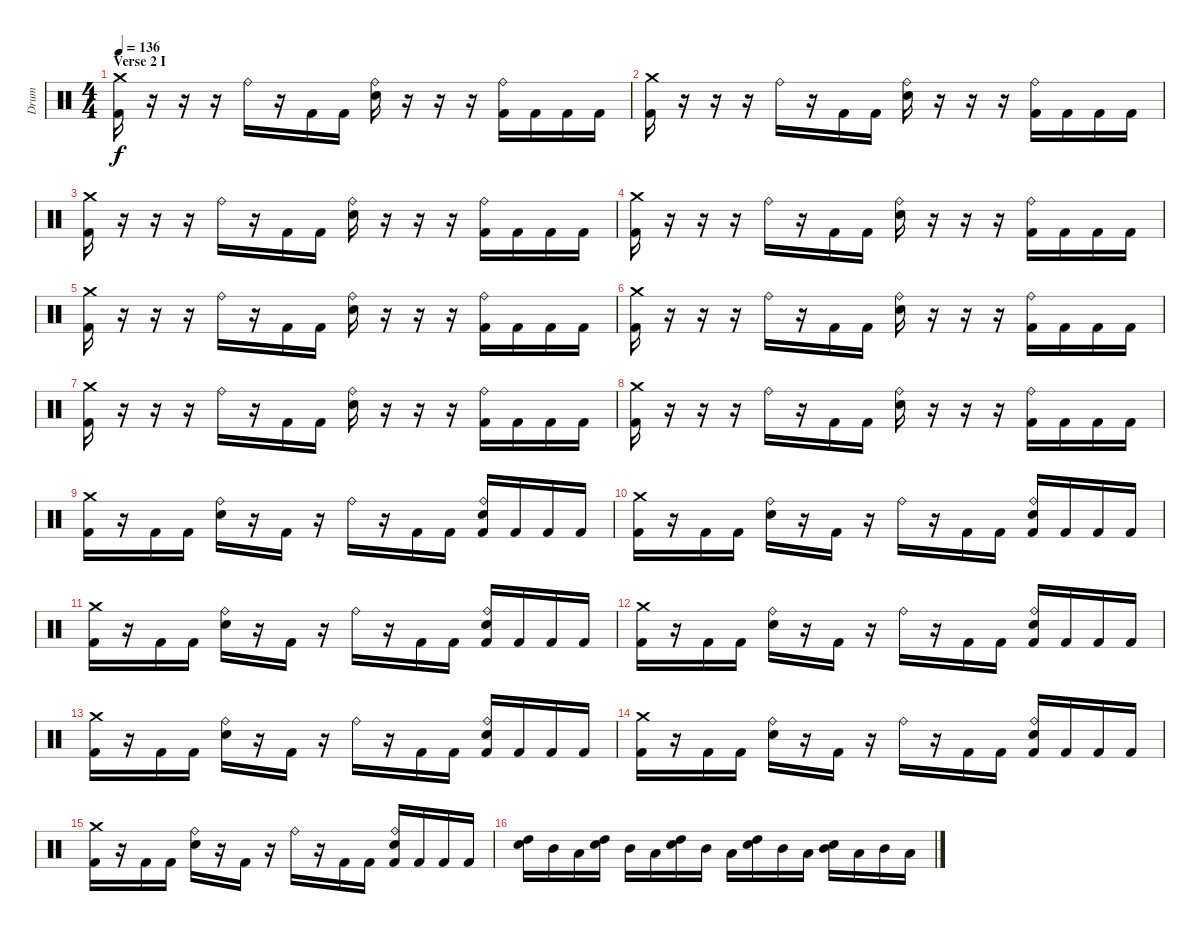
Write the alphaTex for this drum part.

\track ("Drum" "Drum") {instrument percussion}
\staff {score}
\articulation defaults
\ts (4 4)
\section ("" "Verse 2 I")
\tempo 136
\clef neutral
\ks c
("Crash medium (hit)" "Kick (hit) 2").16{dy f} r.16 r.16 r.16 "Ride (bell)".16 r.16 "Kick (hit) 2".16 "Kick (hit) 2".16 ("Ride (bell)" "Snare (hit) 2").16 r.16 r.16 r.16 ("Ride (bell)" "Kick (hit) 2").16 "Kick (hit) 2".16 "Kick (hit) 2".16 "Kick (hit) 2".16 |
("Crash medium (hit)" "Kick (hit) 2").16 r.16 r.16 r.16 "Ride (bell)".16 r.16 "Kick (hit) 2".16 "Kick (hit) 2".16 ("Ride (bell)" "Snare (hit) 2").16 r.16 r.16 r.16 ("Ride (bell)" "Kick (hit) 2").16 "Kick (hit) 2".16 "Kick (hit) 2".16 "Kick (hit) 2".16 |
("Crash medium (hit)" "Kick (hit) 2").16 r.16 r.16 r.16 "Ride (bell)".16 r.16 "Kick (hit) 2".16 "Kick (hit) 2".16 ("Ride (bell)" "Snare (hit) 2").16 r.16 r.16 r.16 ("Ride (bell)" "Kick (hit) 2").16 "Kick (hit) 2".16 "Kick (hit) 2".16 "Kick (hit) 2".16 |
("Crash medium (hit)" "Kick (hit) 2").16 r.16 r.16 r.16 "Ride (bell)".16 r.16 "Kick (hit) 2".16 "Kick (hit) 2".16 ("Ride (bell)" "Snare (hit) 2").16 r.16 r.16 r.16 ("Ride (bell)" "Kick (hit) 2").16 "Kick (hit) 2".16 "Kick (hit) 2".16 "Kick (hit) 2".16 |
("Crash medium (hit)" "Kick (hit) 2").16 r.16 r.16 r.16 "Ride (bell)".16 r.16 "Kick (hit) 2".16 "Kick (hit) 2".16 ("Ride (bell)" "Snare (hit) 2").16 r.16 r.16 r.16 ("Ride (bell)" "Kick (hit) 2").16 "Kick (hit) 2".16 "Kick (hit) 2".16 "Kick (hit) 2".16 |
("Crash medium (hit)" "Kick (hit) 2").16 r.16 r.16 r.16 "Ride (bell)".16 r.16 "Kick (hit) 2".16 "Kick (hit) 2".16 ("Ride (bell)" "Snare (hit) 2").16 r.16 r.16 r.16 ("Ride (bell)" "Kick (hit) 2").16 "Kick (hit) 2".16 "Kick (hit) 2".16 "Kick (hit) 2".16 |
("Crash medium (hit)" "Kick (hit) 2").16 r.16 r.16 r.16 "Ride (bell)".16 r.16 "Kick (hit) 2".16 "Kick (hit) 2".16 ("Ride (bell)" "Snare (hit) 2").16 r.16 r.16 r.16 ("Ride (bell)" "Kick (hit) 2").16 "Kick (hit) 2".16 "Kick (hit) 2".16 "Kick (hit) 2".16 |
("Crash medium (hit)" "Kick (hit) 2").16 r.16 r.16 r.16 "Ride (bell)".16 r.16 "Kick (hit) 2".16 "Kick (hit) 2".16 ("Ride (bell)" "Snare (hit) 2").16 r.16 r.16 r.16 ("Ride (bell)" "Kick (hit) 2").16 "Kick (hit) 2".16 "Kick (hit) 2".16 "Kick (hit) 2".16 |
("Crash medium (hit)" "Kick (hit) 2").16 r.16 "Kick (hit) 2".16 "Kick (hit) 2".16 ("Ride (bell)" "Snare (hit) 2").16 r.16 "Kick (hit) 2".16 r.16 "Ride (bell)".16 r.16 "Kick (hit) 2".16 "Kick (hit) 2".16 ("Ride (bell)" "Snare (hit) 2" "Kick (hit) 2").16 "Kick (hit) 2".16 "Kick (hit) 2".16 "Kick (hit) 2".16 |
("Crash medium (hit)" "Kick (hit) 2").16 r.16 "Kick (hit) 2".16 "Kick (hit) 2".16 ("Ride (bell)" "Snare (hit) 2").16 r.16 "Kick (hit) 2".16 r.16 "Ride (bell)".16 r.16 "Kick (hit) 2".16 "Kick (hit) 2".16 ("Ride (bell)" "Snare (hit) 2" "Kick (hit) 2").16 "Kick (hit) 2".16 "Kick (hit) 2".16 "Kick (hit) 2".16 |
("Crash medium (hit)" "Kick (hit) 2").16 r.16 "Kick (hit) 2".16 "Kick (hit) 2".16 ("Ride (bell)" "Snare (hit) 2").16 r.16 "Kick (hit) 2".16 r.16 "Ride (bell)".16 r.16 "Kick (hit) 2".16 "Kick (hit) 2".16 ("Ride (bell)" "Snare (hit) 2" "Kick (hit) 2").16 "Kick (hit) 2".16 "Kick (hit) 2".16 "Kick (hit) 2".16 |
("Crash medium (hit)" "Kick (hit) 2").16 r.16 "Kick (hit) 2".16 "Kick (hit) 2".16 ("Ride (bell)" "Snare (hit) 2").16 r.16 "Kick (hit) 2".16 r.16 "Ride (bell)".16 r.16 "Kick (hit) 2".16 "Kick (hit) 2".16 ("Ride (bell)" "Snare (hit) 2" "Kick (hit) 2").16 "Kick (hit) 2".16 "Kick (hit) 2".16 "Kick (hit) 2".16 |
("Crash medium (hit)" "Kick (hit) 2").16 r.16 "Kick (hit) 2".16 "Kick (hit) 2".16 ("Ride (bell)" "Snare (hit) 2").16 r.16 "Kick (hit) 2".16 r.16 "Ride (bell)".16 r.16 "Kick (hit) 2".16 "Kick (hit) 2".16 ("Ride (bell)" "Snare (hit) 2" "Kick (hit) 2").16 "Kick (hit) 2".16 "Kick (hit) 2".16 "Kick (hit) 2".16 |
("Crash medium (hit)" "Kick (hit) 2").16 r.16 "Kick (hit) 2".16 "Kick (hit) 2".16 ("Ride (bell)" "Snare (hit) 2").16 r.16 "Kick (hit) 2".16 r.16 "Ride (bell)".16 r.16 "Kick (hit) 2".16 "Kick (hit) 2".16 ("Ride (bell)" "Snare (hit) 2" "Kick (hit) 2").16 "Kick (hit) 2".16 "Kick (hit) 2".16 "Kick (hit) 2".16 |
("Crash medium (hit)" "Kick (hit) 2").16 r.16 "Kick (hit) 2".16 "Kick (hit) 2".16 ("Ride (bell)" "Snare (hit) 2").16 r.16 "Kick (hit) 2".16 r.16 "Ride (bell)".16 r.16 "Kick (hit) 2".16 "Kick (hit) 2".16 ("Ride (bell)" "Snare (hit) 2" "Kick (hit) 2").16 "Kick (hit) 2".16 "Kick (hit) 2".16 "Kick (hit) 2".16 |
("Snare (hit) 2" "High Tom (hit)").16 "Mid Tom (hit)".16 "Low Tom (hit)".16 ("Snare (hit) 2" "High Tom (hit)").16 "Mid Tom (hit)".16 "Low Tom (hit)".16 ("Snare (hit) 2" "High Tom (hit)").16 "Mid Tom (hit)".16 "Low Tom (hit)".16 ("Snare (hit) 2" "High Tom (hit)").16 "Mid Tom (hit)".16 "Low Tom (hit)".16 ("Snare (hit) 2" "Mid Tom (hit)").16 "Low Tom (hit)".16 "Mid Tom (hit)".16 "Low Tom (hit)".16
